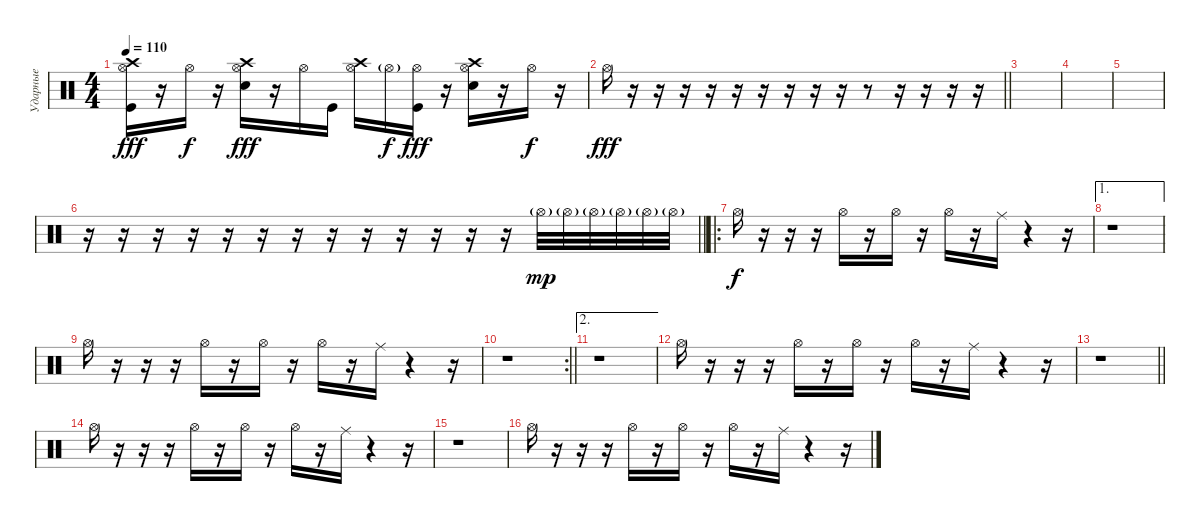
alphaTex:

\track ("Ударные" "Ударные") {instrument percussion}
\staff {score}
\articulation defaults
\ts (4 4)
\tempo 110
\clef neutral
\ks c
("Hi-Hat (open)" "Kick (hit)" "Crash high (hit)").16{dy fff} r.16 "Hi-Hat (open)".16{dy f} r.16 ("Hi-Hat (open)" "Electric Snare (hit)" "Crash high (hit)").16{dy fff} r.16 "Hi-Hat (open)".16 "Kick (hit)".16 ("Hi-Hat (open)" "Crash high (hit)").16 "Hi-Hat (open)"{g}.16{dy f} ("Hi-Hat (open)" "Kick (hit)").16{dy fff} r.16 ("Hi-Hat (open)" "Electric Snare (hit)" "Crash high (hit)").16 r.16 "Hi-Hat (open)".16{dy f} r.16 |
\barLineRight lightlight "Hi-Hat (open)".16{dy fff}
r.16 r.16 r.16 r.16 r.16 r.16 r.16 r.16 r.16 r.8 r.16 r.16 r.16 r.16 |
|
|
|
\barLineRight lightlight
r.16 r.16 r.16 r.16 r.16 r.16 r.16 r.16 r.16 r.16 r.16 r.16 r.16 "Hi-Hat (open)"{g}.32{dy mp} "Hi-Hat (open)"{g}.32 "Hi-Hat (open)"{g}.32 "Hi-Hat (open)"{g}.32 "Hi-Hat (open)"{g}.32 "Hi-Hat (open)"{g}.32 |
\ro "Hi-Hat (open)".16{dy f}
r.16 r.16 r.16 "Hi-Hat (open)".16 r.16 "Hi-Hat (open)".16 r.16 "Hi-Hat (open)".16 r.16 "Ride (middle)".16 r.4 r.16 |
\ae 1
r.1 |
"Hi-Hat (open)".16 r.16 r.16 r.16 "Hi-Hat (open)".16 r.16 "Hi-Hat (open)".16 r.16 "Hi-Hat (open)".16 r.16 "Ride (middle)".16 r.4 r.16 |
\rc 2
\barLineRight lightlight
r.1 |
\ae 2
r.1 |
"Hi-Hat (open)".16 r.16 r.16 r.16 "Hi-Hat (open)".16 r.16 "Hi-Hat (open)".16 r.16 "Hi-Hat (open)".16 r.16 "Ride (middle)".16 r.4 r.16 |
\barLineRight lightlight
r.1 |
"Hi-Hat (open)".16 r.16 r.16 r.16 "Hi-Hat (open)".16 r.16 "Hi-Hat (open)".16 r.16 "Hi-Hat (open)".16 r.16 "Ride (middle)".16 r.4 r.16 |
r.1 |
"Hi-Hat (open)".16 r.16 r.16 r.16 "Hi-Hat (open)".16 r.16 "Hi-Hat (open)".16 r.16 "Hi-Hat (open)".16 r.16 "Ride (middle)".16 r.4 r.16
